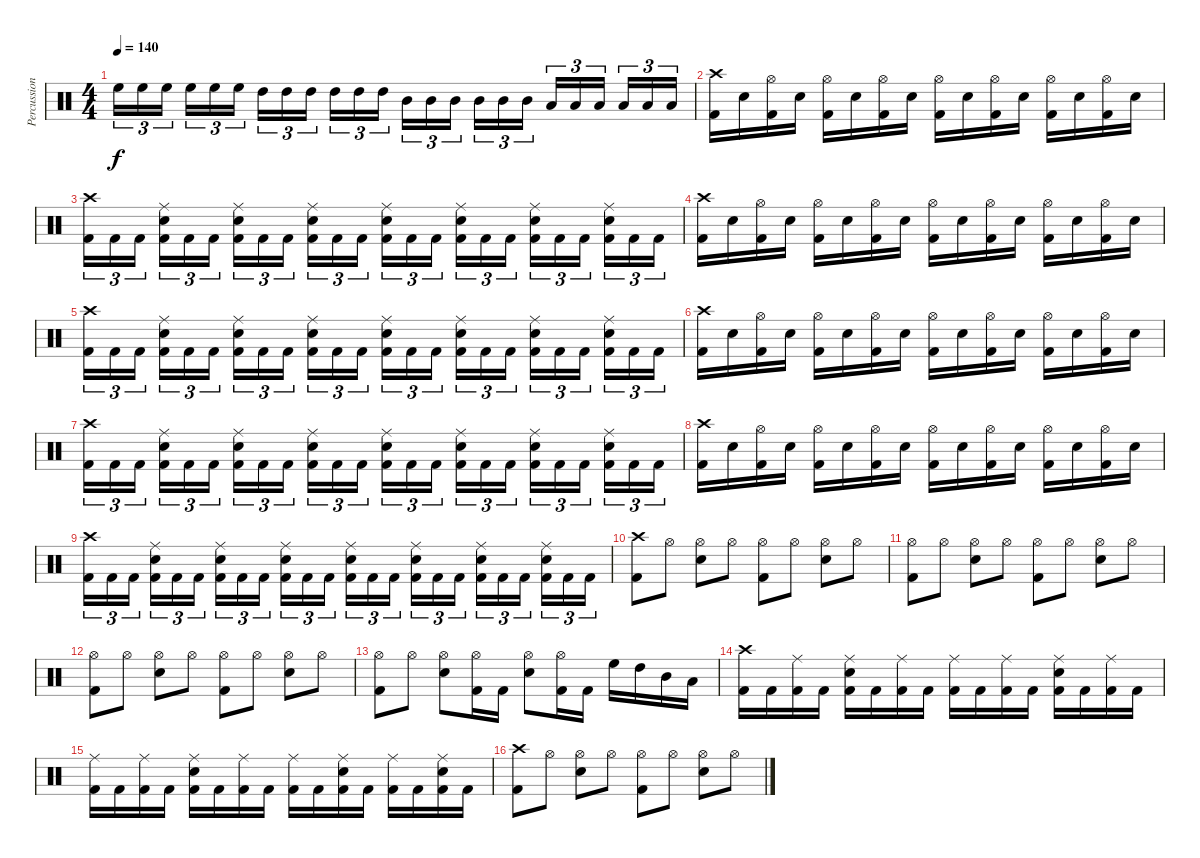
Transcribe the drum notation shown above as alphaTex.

\track ("Percussion" "Percussion") {instrument percussion}
\staff {score}
\articulation defaults
\ts (4 4)
\tempo 140
\clef neutral
\ks c "High Floor Tom (hit)".16{tu (3 2) dy f} "High Floor Tom (hit)".16{tu (3 2)} "High Floor Tom (hit)".16{tu (3 2)} "High Floor Tom (hit)".16{tu (3 2)} "High Floor Tom (hit)".16{tu (3 2)} "High Floor Tom (hit)".16{tu (3 2)} "High Tom (hit)".16{tu (3 2)} "High Tom (hit)".16{tu (3 2)} "High Tom (hit)".16{tu (3 2)} "High Tom (hit)".16{tu (3 2)} "High Tom (hit)".16{tu (3 2)} "High Tom (hit)".16{tu (3 2)} "Mid Tom (hit)".16{tu (3 2)} "Mid Tom (hit)".16{tu (3 2)} "Mid Tom (hit)".16{tu (3 2)} "Mid Tom (hit)".16{tu (3 2)} "Mid Tom (hit)".16{tu (3 2)} "Mid Tom (hit)".16{tu (3 2)} "Low Tom (hit)".16{tu (3 2)} "Low Tom (hit)".16{tu (3 2)} "Low Tom (hit)".16{tu (3 2)} "Low Tom (hit)".16{tu (3 2)} "Low Tom (hit)".16{tu (3 2)} "Low Tom (hit)".16{tu (3 2)}
|
("Crash high (hit)" "Kick (hit) 2").16 "Electric Snare (hit)".16 ("Hi-Hat (open)" "Kick (hit) 2").16 "Electric Snare (hit)".16 ("Hi-Hat (open)" "Kick (hit) 2").16 "Electric Snare (hit)".16 ("Hi-Hat (open)" "Kick (hit) 2").16 "Electric Snare (hit)".16 ("Hi-Hat (open)" "Kick (hit) 2").16 "Electric Snare (hit)".16 ("Hi-Hat (open)" "Kick (hit) 2").16 "Electric Snare (hit)".16 ("Hi-Hat (open)" "Kick (hit) 2").16 "Electric Snare (hit)".16 ("Hi-Hat (open)" "Kick (hit) 2").16 "Electric Snare (hit)".16 |
("Crash high (hit)" "Kick (hit) 2").16{tu (3 2)} "Kick (hit) 2".16{tu (3 2)} "Kick (hit) 2".16{tu (3 2)} ("Ride (middle)" "Electric Snare (hit)" "Kick (hit) 2").16{tu (3 2)} "Kick (hit) 2".16{tu (3 2)} "Kick (hit) 2".16{tu (3 2)} ("Ride (middle)" "Electric Snare (hit)" "Kick (hit) 2").16{tu (3 2)} "Kick (hit) 2".16{tu (3 2)} "Kick (hit) 2".16{tu (3 2)} ("Ride (middle)" "Electric Snare (hit)" "Kick (hit) 2").16{tu (3 2)} "Kick (hit) 2".16{tu (3 2)} "Kick (hit) 2".16{tu (3 2)} ("Ride (middle)" "Electric Snare (hit)" "Kick (hit) 2").16{tu (3 2)} "Kick (hit) 2".16{tu (3 2)} "Kick (hit) 2".16{tu (3 2)} ("Ride (middle)" "Electric Snare (hit)" "Kick (hit) 2").16{tu (3 2)} "Kick (hit) 2".16{tu (3 2)} "Kick (hit) 2".16{tu (3 2)} ("Ride (middle)" "Electric Snare (hit)" "Kick (hit) 2").16{tu (3 2)} "Kick (hit) 2".16{tu (3 2)} "Kick (hit) 2".16{tu (3 2)} ("Ride (middle)" "Electric Snare (hit)" "Kick (hit) 2").16{tu (3 2)} "Kick (hit) 2".16{tu (3 2)} "Kick (hit) 2".16{tu (3 2)} |
("Crash high (hit)" "Kick (hit) 2").16 "Electric Snare (hit)".16 ("Hi-Hat (open)" "Kick (hit) 2").16 "Electric Snare (hit)".16 ("Hi-Hat (open)" "Kick (hit) 2").16 "Electric Snare (hit)".16 ("Hi-Hat (open)" "Kick (hit) 2").16 "Electric Snare (hit)".16 ("Hi-Hat (open)" "Kick (hit) 2").16 "Electric Snare (hit)".16 ("Hi-Hat (open)" "Kick (hit) 2").16 "Electric Snare (hit)".16 ("Hi-Hat (open)" "Kick (hit) 2").16 "Electric Snare (hit)".16 ("Hi-Hat (open)" "Kick (hit) 2").16 "Electric Snare (hit)".16 |
("Crash high (hit)" "Kick (hit) 2").16{tu (3 2)} "Kick (hit) 2".16{tu (3 2)} "Kick (hit) 2".16{tu (3 2)} ("Ride (middle)" "Electric Snare (hit)" "Kick (hit) 2").16{tu (3 2)} "Kick (hit) 2".16{tu (3 2)} "Kick (hit) 2".16{tu (3 2)} ("Ride (middle)" "Electric Snare (hit)" "Kick (hit) 2").16{tu (3 2)} "Kick (hit) 2".16{tu (3 2)} "Kick (hit) 2".16{tu (3 2)} ("Ride (middle)" "Electric Snare (hit)" "Kick (hit) 2").16{tu (3 2)} "Kick (hit) 2".16{tu (3 2)} "Kick (hit) 2".16{tu (3 2)} ("Ride (middle)" "Electric Snare (hit)" "Kick (hit) 2").16{tu (3 2)} "Kick (hit) 2".16{tu (3 2)} "Kick (hit) 2".16{tu (3 2)} ("Ride (middle)" "Electric Snare (hit)" "Kick (hit) 2").16{tu (3 2)} "Kick (hit) 2".16{tu (3 2)} "Kick (hit) 2".16{tu (3 2)} ("Ride (middle)" "Electric Snare (hit)" "Kick (hit) 2").16{tu (3 2)} "Kick (hit) 2".16{tu (3 2)} "Kick (hit) 2".16{tu (3 2)} ("Ride (middle)" "Electric Snare (hit)" "Kick (hit) 2").16{tu (3 2)} "Kick (hit) 2".16{tu (3 2)} "Kick (hit) 2".16{tu (3 2)} |
("Crash high (hit)" "Kick (hit) 2").16 "Electric Snare (hit)".16 ("Hi-Hat (open)" "Kick (hit) 2").16 "Electric Snare (hit)".16 ("Hi-Hat (open)" "Kick (hit) 2").16 "Electric Snare (hit)".16 ("Hi-Hat (open)" "Kick (hit) 2").16 "Electric Snare (hit)".16 ("Hi-Hat (open)" "Kick (hit) 2").16 "Electric Snare (hit)".16 ("Hi-Hat (open)" "Kick (hit) 2").16 "Electric Snare (hit)".16 ("Hi-Hat (open)" "Kick (hit) 2").16 "Electric Snare (hit)".16 ("Hi-Hat (open)" "Kick (hit) 2").16 "Electric Snare (hit)".16 |
("Crash high (hit)" "Kick (hit) 2").16{tu (3 2)} "Kick (hit) 2".16{tu (3 2)} "Kick (hit) 2".16{tu (3 2)} ("Ride (middle)" "Electric Snare (hit)" "Kick (hit) 2").16{tu (3 2)} "Kick (hit) 2".16{tu (3 2)} "Kick (hit) 2".16{tu (3 2)} ("Ride (middle)" "Electric Snare (hit)" "Kick (hit) 2").16{tu (3 2)} "Kick (hit) 2".16{tu (3 2)} "Kick (hit) 2".16{tu (3 2)} ("Ride (middle)" "Electric Snare (hit)" "Kick (hit) 2").16{tu (3 2)} "Kick (hit) 2".16{tu (3 2)} "Kick (hit) 2".16{tu (3 2)} ("Ride (middle)" "Electric Snare (hit)" "Kick (hit) 2").16{tu (3 2)} "Kick (hit) 2".16{tu (3 2)} "Kick (hit) 2".16{tu (3 2)} ("Ride (middle)" "Electric Snare (hit)" "Kick (hit) 2").16{tu (3 2)} "Kick (hit) 2".16{tu (3 2)} "Kick (hit) 2".16{tu (3 2)} ("Ride (middle)" "Electric Snare (hit)" "Kick (hit) 2").16{tu (3 2)} "Kick (hit) 2".16{tu (3 2)} "Kick (hit) 2".16{tu (3 2)} ("Ride (middle)" "Electric Snare (hit)" "Kick (hit) 2").16{tu (3 2)} "Kick (hit) 2".16{tu (3 2)} "Kick (hit) 2".16{tu (3 2)} |
("Crash high (hit)" "Kick (hit) 2").16 "Electric Snare (hit)".16 ("Hi-Hat (open)" "Kick (hit) 2").16 "Electric Snare (hit)".16 ("Hi-Hat (open)" "Kick (hit) 2").16 "Electric Snare (hit)".16 ("Hi-Hat (open)" "Kick (hit) 2").16 "Electric Snare (hit)".16 ("Hi-Hat (open)" "Kick (hit) 2").16 "Electric Snare (hit)".16 ("Hi-Hat (open)" "Kick (hit) 2").16 "Electric Snare (hit)".16 ("Hi-Hat (open)" "Kick (hit) 2").16 "Electric Snare (hit)".16 ("Hi-Hat (open)" "Kick (hit) 2").16 "Electric Snare (hit)".16 |
("Crash high (hit)" "Kick (hit) 2").16{tu (3 2)} "Kick (hit) 2".16{tu (3 2)} "Kick (hit) 2".16{tu (3 2)} ("Ride (middle)" "Electric Snare (hit)" "Kick (hit) 2").16{tu (3 2)} "Kick (hit) 2".16{tu (3 2)} "Kick (hit) 2".16{tu (3 2)} ("Ride (middle)" "Electric Snare (hit)" "Kick (hit) 2").16{tu (3 2)} "Kick (hit) 2".16{tu (3 2)} "Kick (hit) 2".16{tu (3 2)} ("Ride (middle)" "Electric Snare (hit)" "Kick (hit) 2").16{tu (3 2)} "Kick (hit) 2".16{tu (3 2)} "Kick (hit) 2".16{tu (3 2)} ("Ride (middle)" "Electric Snare (hit)" "Kick (hit) 2").16{tu (3 2)} "Kick (hit) 2".16{tu (3 2)} "Kick (hit) 2".16{tu (3 2)} ("Ride (middle)" "Electric Snare (hit)" "Kick (hit) 2").16{tu (3 2)} "Kick (hit) 2".16{tu (3 2)} "Kick (hit) 2".16{tu (3 2)} ("Ride (middle)" "Electric Snare (hit)" "Kick (hit) 2").16{tu (3 2)} "Kick (hit) 2".16{tu (3 2)} "Kick (hit) 2".16{tu (3 2)} ("Ride (middle)" "Electric Snare (hit)" "Kick (hit) 2").16{tu (3 2)} "Kick (hit) 2".16{tu (3 2)} "Kick (hit) 2".16{tu (3 2)} |
("Crash high (hit)" "Kick (hit) 2").8 "Hi-Hat (open)".8 ("Hi-Hat (open)" "Electric Snare (hit)").8 "Hi-Hat (open)".8 ("Hi-Hat (open)" "Kick (hit) 2").8 "Hi-Hat (open)".8 ("Hi-Hat (open)" "Electric Snare (hit)").8 "Hi-Hat (open)".8 |
("Hi-Hat (open)" "Kick (hit) 2").8 "Hi-Hat (open)".8 ("Hi-Hat (open)" "Electric Snare (hit)").8 "Hi-Hat (open)".8 ("Hi-Hat (open)" "Kick (hit) 2").8 "Hi-Hat (open)".8 ("Hi-Hat (open)" "Electric Snare (hit)").8 "Hi-Hat (open)".8 |
("Hi-Hat (open)" "Kick (hit) 2").8 "Hi-Hat (open)".8 ("Hi-Hat (open)" "Electric Snare (hit)").8 "Hi-Hat (open)".8 ("Hi-Hat (open)" "Kick (hit) 2").8 "Hi-Hat (open)".8 ("Hi-Hat (open)" "Electric Snare (hit)").8 "Hi-Hat (open)".8 |
("Hi-Hat (open)" "Kick (hit) 2").8 "Hi-Hat (open)".8 ("Hi-Hat (open)" "Electric Snare (hit)").8 ("Hi-Hat (open)" "Kick (hit) 2").16 "Kick (hit) 2".16 ("Hi-Hat (open)" "Electric Snare (hit)").8 ("Hi-Hat (open)" "Kick (hit) 2").16 "Kick (hit) 2".16 "High Floor Tom (hit)".16 "High Tom (hit)".16 "Mid Tom (hit)".16 "Low Tom (hit)".16 |
("Crash high (hit)" "Kick (hit) 2").16 "Kick (hit) 2".16 ("Ride (middle)" "Kick (hit) 2").16 "Kick (hit) 2".16 ("Ride (middle)" "Electric Snare (hit)" "Kick (hit) 2").16 "Kick (hit) 2".16 ("Ride (middle)" "Kick (hit) 2").16 "Kick (hit) 2".16 ("Ride (middle)" "Kick (hit) 2").16 "Kick (hit) 2".16 ("Ride (middle)" "Kick (hit) 2").16 "Kick (hit) 2".16 ("Ride (middle)" "Electric Snare (hit)" "Kick (hit) 2").16 "Kick (hit) 2".16 ("Ride (middle)" "Kick (hit) 2").16 "Kick (hit) 2".16 |
("Ride (middle)" "Kick (hit) 2").16 "Kick (hit) 2".16 ("Ride (middle)" "Kick (hit) 2").16 "Kick (hit) 2".16 ("Ride (middle)" "Electric Snare (hit)" "Kick (hit) 2").16 "Kick (hit) 2".16 ("Ride (middle)" "Kick (hit) 2").16 "Kick (hit) 2".16 ("Ride (middle)" "Kick (hit) 2").16 "Kick (hit) 2".16 ("Ride (middle)" "Electric Snare (hit)" "Kick (hit) 2").16 "Kick (hit) 2".16 ("Ride (middle)" "Kick (hit) 2").16 "Kick (hit) 2".16 ("Ride (middle)" "Electric Snare (hit)" "Kick (hit) 2").16 "Kick (hit) 2".16 |
("Crash high (hit)" "Kick (hit) 2").8 "Hi-Hat (open)".8 ("Hi-Hat (open)" "Electric Snare (hit)").8 "Hi-Hat (open)".8 ("Hi-Hat (open)" "Kick (hit) 2").8 "Hi-Hat (open)".8 ("Hi-Hat (open)" "Electric Snare (hit)").8 "Hi-Hat (open)".8
